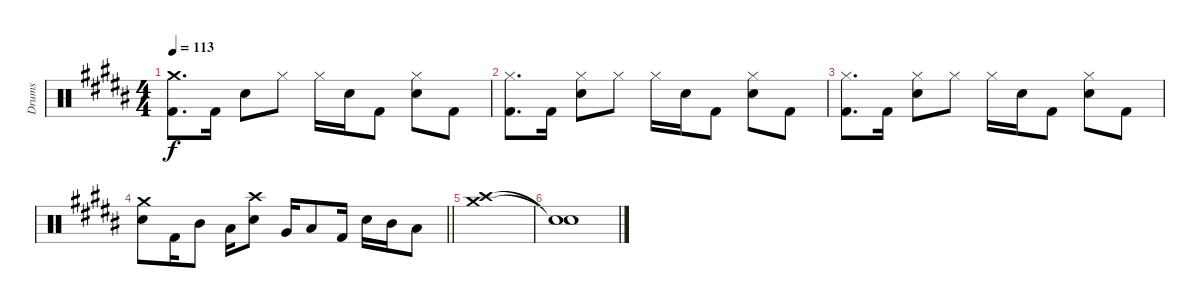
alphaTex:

\track ("Drums" "Drums") {instrument percussion}
\staff {score}
\articulation defaults
\ts (4 4)
\tempo 113
\clef neutral
\ks b
("Kick (hit) 2" "Crash medium (hit)").8{d dy f} "Kick (hit) 2".16 "Electric Snare (hit)".8 "Hi-Hat (closed)".8 "Hi-Hat (closed)".16 "Electric Snare (hit)".16 "Kick (hit) 2".8 ("Electric Snare (hit)" "Hi-Hat (closed)").8 "Kick (hit) 2".8 |
("Kick (hit) 2" "Hi-Hat (closed)").8{d} "Kick (hit) 2".16 ("Electric Snare (hit)" "Hi-Hat (closed)").8 "Hi-Hat (closed)".8 "Hi-Hat (closed)".16 "Electric Snare (hit)".16 "Kick (hit) 2".8 ("Electric Snare (hit)" "Hi-Hat (closed)").8 "Kick (hit) 2".8 |
("Kick (hit) 2" "Hi-Hat (closed)").8{d} "Kick (hit) 2".16 ("Electric Snare (hit)" "Hi-Hat (closed)").8 "Hi-Hat (closed)".8 "Hi-Hat (closed)".16 "Electric Snare (hit)".16 "Kick (hit) 2".8 ("Electric Snare (hit)" "Hi-Hat (closed)").8 "Kick (hit) 2".8 |
\barLineRight lightlight
("Electric Snare (hit)" "Crash medium (hit)").8 "Kick (hit) 2".16 "Mid Tom (hit)".8 "Low Tom (hit)".16 ("Electric Snare (hit)" "Crash high (hit)").8 "Very Low Tom (hit)".16 "Low Floor Tom (hit)".8 "Kick (hit) 2".16 "Electric Snare (hit)".16 "Mid Tom (hit)".16 "Low Tom (hit)".8 |
("Crash high (hit)" "Crash medium (hit)").1 |
("Snare (hit)"{t} "Snare (hit)"{t}).1
